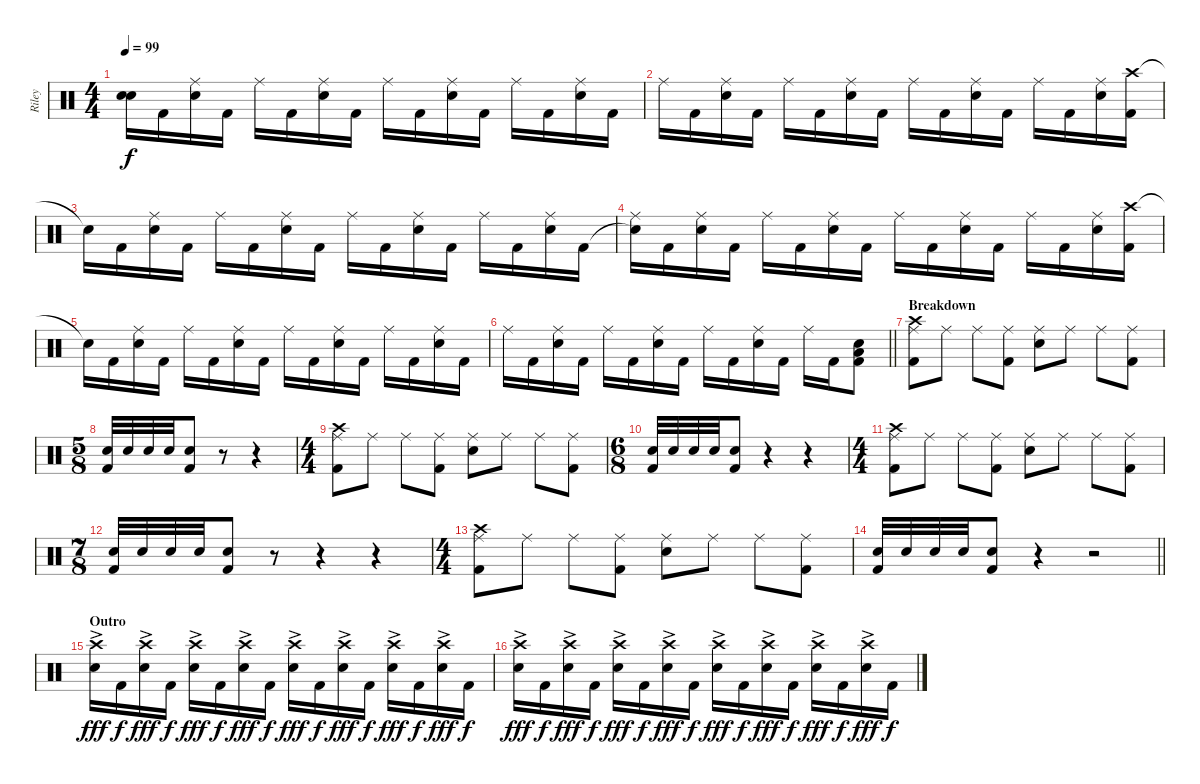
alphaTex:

\track ("Riley" "Riley") {instrument percussion}
\staff {score}
\articulation defaults
\ts (4 4)
\tempo 99
\clef neutral
\ks c
("Snare (hit)"{t} "Snare (hit)"{t}).16{dy f} "Kick (hit) 2".16 ("Ride (middle)" "Electric Snare (hit)").16 "Kick (hit) 2".16 "Ride (middle)".16 "Kick (hit) 2".16 ("Ride (middle)" "Electric Snare (hit)").16 "Kick (hit) 2".16 "Ride (middle)".16 "Kick (hit) 2".16 ("Ride (middle)" "Electric Snare (hit)").16 "Kick (hit) 2".16 "Ride (middle)".16 "Kick (hit) 2".16 ("Ride (middle)" "Electric Snare (hit)").16 "Kick (hit) 2".16 |
"Ride (middle)".16 "Kick (hit) 2".16 ("Ride (middle)" "Electric Snare (hit)").16 "Kick (hit) 2".16 "Ride (middle)".16 "Kick (hit) 2".16 ("Ride (middle)" "Electric Snare (hit)").16 "Kick (hit) 2".16 "Ride (middle)".16 "Kick (hit) 2".16 ("Ride (middle)" "Electric Snare (hit)").16 "Kick (hit) 2".16 "Ride (middle)".16 "Kick (hit) 2".16 ("Ride (middle)" "Electric Snare (hit)").16 ("Crash high (hit)" "Kick (hit) 2").16 |
"Snare (hit)"{t}.16 "Kick (hit) 2".16 ("Ride (middle)" "Electric Snare (hit)").16 "Kick (hit) 2".16 "Ride (middle)".16 "Kick (hit) 2".16 ("Ride (middle)" "Electric Snare (hit)").16 "Kick (hit) 2".16 "Ride (middle)".16 "Kick (hit) 2".16 ("Ride (middle)" "Electric Snare (hit)").16 "Kick (hit) 2".16 "Ride (middle)".16 "Kick (hit) 2".16 ("Ride (middle)" "Electric Snare (hit)").16 "Kick (hit) 2".16 |
("Snare (hit)"{t} "Ride (middle)").16 "Kick (hit) 2".16 ("Ride (middle)" "Electric Snare (hit)").16 "Kick (hit) 2".16 "Ride (middle)".16 "Kick (hit) 2".16 ("Ride (middle)" "Electric Snare (hit)").16 "Kick (hit) 2".16 "Ride (middle)".16 "Kick (hit) 2".16 ("Ride (middle)" "Electric Snare (hit)").16 "Kick (hit) 2".16 "Ride (middle)".16 "Kick (hit) 2".16 ("Ride (middle)" "Electric Snare (hit)").16 ("Crash high (hit)" "Kick (hit) 2").16 |
"Snare (hit)"{t}.16 "Kick (hit) 2".16 ("Ride (middle)" "Electric Snare (hit)").16 "Kick (hit) 2".16 "Ride (middle)".16 "Kick (hit) 2".16 ("Ride (middle)" "Electric Snare (hit)").16 "Kick (hit) 2".16 "Ride (middle)".16 "Kick (hit) 2".16 ("Ride (middle)" "Electric Snare (hit)").16 "Kick (hit) 2".16 "Ride (middle)".16 "Kick (hit) 2".16 ("Ride (middle)" "Electric Snare (hit)").16 "Kick (hit) 2".16 |
\barLineRight lightlight "Ride (middle)".16 "Kick (hit) 2".16
("Ride (middle)" "Electric Snare (hit)").16 "Kick (hit) 2".16 "Ride (middle)".16 "Kick (hit) 2".16 ("Ride (middle)" "Electric Snare (hit)").16 "Kick (hit) 2".16 "Ride (middle)".16 "Kick (hit) 2".16 ("Ride (middle)" "Electric Snare (hit)").16 "Kick (hit) 2".16 "Ride (middle)".16 "Kick (hit) 2".16 ("Low Tom (hit)" "Electric Snare (hit)" "Kick (hit) 2").8 |
\section ("" "Breakdown")
("Crash high (hit)" "Ride (middle)" "Kick (hit) 2").8 "Ride (middle)".8 "Ride (middle)".8 ("Ride (middle)" "Kick (hit) 2").8 ("Ride (middle)" "Electric Snare (hit)").8 "Ride (middle)".8 "Ride (middle)".8 ("Ride (middle)" "Kick (hit) 2").8 |
\ts (5 8)
("Electric Snare (hit)" "Kick (hit) 2").32 "Electric Snare (hit)".32 "Electric Snare (hit)".32 "Electric Snare (hit)".32 ("Electric Snare (hit)" "Kick (hit) 2").8 r.8 r.4 |
\ts (4 4)
("Crash high (hit)" "Ride (middle)" "Kick (hit) 2").8 "Ride (middle)".8 "Ride (middle)".8 ("Ride (middle)" "Kick (hit) 2").8 ("Ride (middle)" "Electric Snare (hit)").8 "Ride (middle)".8 "Ride (middle)".8 ("Ride (middle)" "Kick (hit) 2").8 |
\ts (6 8)
("Electric Snare (hit)" "Kick (hit) 2").32 "Electric Snare (hit)".32 "Electric Snare (hit)".32 "Electric Snare (hit)".32 ("Electric Snare (hit)" "Kick (hit) 2").8 r.4 r.4 |
\ts (4 4)
("Crash high (hit)" "Ride (middle)" "Kick (hit) 2").8 "Ride (middle)".8 "Ride (middle)".8 ("Ride (middle)" "Kick (hit) 2").8 ("Ride (middle)" "Electric Snare (hit)").8 "Ride (middle)".8 "Ride (middle)".8 ("Ride (middle)" "Kick (hit) 2").8 |
\ts (7 8)
("Electric Snare (hit)" "Kick (hit) 2").32 "Electric Snare (hit)".32 "Electric Snare (hit)".32 "Electric Snare (hit)".32 ("Electric Snare (hit)" "Kick (hit) 2").8 r.8 r.4 r.4 |
\ts (4 4)
("Crash high (hit)" "Ride (middle)" "Kick (hit) 2").8 "Ride (middle)".8 "Ride (middle)".8 ("Ride (middle)" "Kick (hit) 2").8 ("Ride (middle)" "Electric Snare (hit)").8 "Ride (middle)".8 "Ride (middle)".8 ("Ride (middle)" "Kick (hit) 2").8 |
\barLineRight lightlight
("Electric Snare (hit)" "Kick (hit) 2").32 "Electric Snare (hit)".32 "Electric Snare (hit)".32 "Electric Snare (hit)".32 ("Electric Snare (hit)" "Kick (hit) 2").8 r.4 r.2 |
\section ("" "Outro")
("Crash high (hit)" "Electric Snare (hit)"{ac}).16{dy fff} "Kick (hit) 2".16{dy f} ("Crash high (hit)" "Electric Snare (hit)"{ac}).16{dy fff} "Kick (hit) 2".16{dy f} ("Crash high (hit)" "Electric Snare (hit)"{ac}).16{dy fff} "Kick (hit) 2".16{dy f} ("Crash high (hit)" "Electric Snare (hit)"{ac}).16{dy fff} "Kick (hit) 2".16{dy f} ("Crash high (hit)" "Electric Snare (hit)"{ac}).16{dy fff} "Kick (hit) 2".16{dy f} ("Crash high (hit)" "Electric Snare (hit)"{ac}).16{dy fff} "Kick (hit) 2".16{dy f} ("Crash high (hit)" "Electric Snare (hit)"{ac}).16{dy fff} "Kick (hit) 2".16{dy f} ("Crash high (hit)" "Electric Snare (hit)"{ac}).16{dy fff} "Kick (hit) 2".16{dy f} |
("Crash high (hit)" "Electric Snare (hit)"{ac}).16{dy fff} "Kick (hit) 2".16{dy f} ("Crash high (hit)" "Electric Snare (hit)"{ac}).16{dy fff} "Kick (hit) 2".16{dy f} ("Crash high (hit)" "Electric Snare (hit)"{ac}).16{dy fff} "Kick (hit) 2".16{dy f} ("Crash high (hit)" "Electric Snare (hit)"{ac}).16{dy fff} "Kick (hit) 2".16{dy f} ("Crash high (hit)" "Electric Snare (hit)"{ac}).16{dy fff} "Kick (hit) 2".16{dy f} ("Crash high (hit)" "Electric Snare (hit)"{ac}).16{dy fff} "Kick (hit) 2".16{dy f} ("Crash high (hit)" "Electric Snare (hit)"{ac}).16{dy fff} "Kick (hit) 2".16{dy f} ("Crash high (hit)" "Electric Snare (hit)"{ac}).16{dy fff} "Kick (hit) 2".16{dy f}
